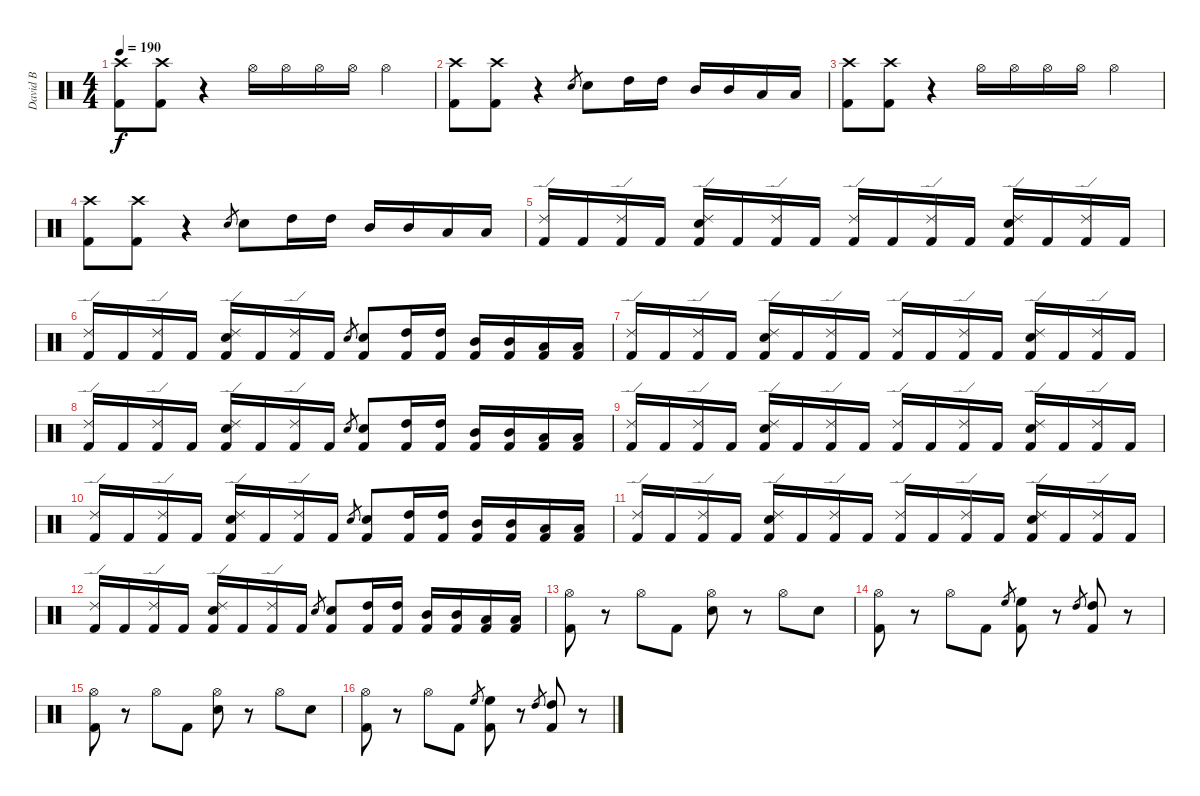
\track ("David B" "David B") {instrument percussion}
\staff {score}
\articulation defaults
\ts (4 4)
\tempo 190
\clef neutral
\ks c
("Crash high (hit)" "Kick (hit) 2").8{dy f} ("Crash high (hit)" "Kick (hit) 2").8 r.4 "Hi-Hat (open)".16 "Hi-Hat (open)".16 "Hi-Hat (open)".16 "Hi-Hat (open)".16 "Hi-Hat (open)".4 |
("Crash high (hit)" "Kick (hit) 2").8 ("Crash high (hit)" "Kick (hit) 2").8 r.4 "Electric Snare (hit)".8{gr} "Electric Snare (hit)".8 "High Tom (hit)".16 "High Tom (hit)".16 "Mid Tom (hit)".16 "Mid Tom (hit)".16 "Low Tom (hit)".16 "Low Tom (hit)".16 |
("Crash high (hit)" "Kick (hit) 2").8 ("Crash high (hit)" "Kick (hit) 2").8 r.4 "Hi-Hat (open)".16 "Hi-Hat (open)".16 "Hi-Hat (open)".16 "Hi-Hat (open)".16 "Hi-Hat (open)".4 |
("Crash high (hit)" "Kick (hit) 2").8 ("Crash high (hit)" "Kick (hit) 2").8 r.4 "Electric Snare (hit)".8{gr} "Electric Snare (hit)".8 "High Tom (hit)".16 "High Tom (hit)".16 "Mid Tom (hit)".16 "Mid Tom (hit)".16 "Low Tom (hit)".16 "Low Tom (hit)".16 |
("Ride (edge) 2" "Kick (hit) 2").16 "Kick (hit) 2".16 ("Ride (edge) 2" "Kick (hit) 2").16 "Kick (hit) 2".16 ("Ride (edge) 2" "Electric Snare (hit)" "Kick (hit) 2").16 "Kick (hit) 2".16 ("Ride (edge) 2" "Kick (hit) 2").16 "Kick (hit) 2".16 ("Ride (edge) 2" "Kick (hit) 2").16 "Kick (hit) 2".16 ("Ride (edge) 2" "Kick (hit) 2").16 "Kick (hit) 2".16 ("Ride (edge) 2" "Electric Snare (hit)" "Kick (hit) 2").16 "Kick (hit) 2".16 ("Ride (edge) 2" "Kick (hit) 2").16 "Kick (hit) 2".16 |
("Ride (edge) 2" "Kick (hit) 2").16 "Kick (hit) 2".16 ("Ride (edge) 2" "Kick (hit) 2").16 "Kick (hit) 2".16 ("Ride (edge) 2" "Electric Snare (hit)" "Kick (hit) 2").16 "Kick (hit) 2".16 ("Ride (edge) 2" "Kick (hit) 2").16 "Kick (hit) 2".16 "Electric Snare (hit)".8{gr} ("Electric Snare (hit)" "Kick (hit) 2").8 ("High Tom (hit)" "Kick (hit) 2").16 ("High Tom (hit)" "Kick (hit) 2").16 ("Mid Tom (hit)" "Kick (hit) 2").16 ("Mid Tom (hit)" "Kick (hit) 2").16 ("Low Tom (hit)" "Kick (hit) 2").16 ("Low Tom (hit)" "Kick (hit) 2").16 |
("Ride (edge) 2" "Kick (hit) 2").16 "Kick (hit) 2".16 ("Ride (edge) 2" "Kick (hit) 2").16 "Kick (hit) 2".16 ("Ride (edge) 2" "Electric Snare (hit)" "Kick (hit) 2").16 "Kick (hit) 2".16 ("Ride (edge) 2" "Kick (hit) 2").16 "Kick (hit) 2".16 ("Ride (edge) 2" "Kick (hit) 2").16 "Kick (hit) 2".16 ("Ride (edge) 2" "Kick (hit) 2").16 "Kick (hit) 2".16 ("Ride (edge) 2" "Electric Snare (hit)" "Kick (hit) 2").16 "Kick (hit) 2".16 ("Ride (edge) 2" "Kick (hit) 2").16 "Kick (hit) 2".16 |
("Ride (edge) 2" "Kick (hit) 2").16 "Kick (hit) 2".16 ("Ride (edge) 2" "Kick (hit) 2").16 "Kick (hit) 2".16 ("Ride (edge) 2" "Electric Snare (hit)" "Kick (hit) 2").16 "Kick (hit) 2".16 ("Ride (edge) 2" "Kick (hit) 2").16 "Kick (hit) 2".16 "Electric Snare (hit)".8{gr} ("Electric Snare (hit)" "Kick (hit) 2").8 ("High Tom (hit)" "Kick (hit) 2").16 ("High Tom (hit)" "Kick (hit) 2").16 ("Mid Tom (hit)" "Kick (hit) 2").16 ("Mid Tom (hit)" "Kick (hit) 2").16 ("Low Tom (hit)" "Kick (hit) 2").16 ("Low Tom (hit)" "Kick (hit) 2").16 |
("Ride (edge) 2" "Kick (hit) 2").16 "Kick (hit) 2".16 ("Ride (edge) 2" "Kick (hit) 2").16 "Kick (hit) 2".16 ("Ride (edge) 2" "Electric Snare (hit)" "Kick (hit) 2").16 "Kick (hit) 2".16 ("Ride (edge) 2" "Kick (hit) 2").16 "Kick (hit) 2".16 ("Ride (edge) 2" "Kick (hit) 2").16 "Kick (hit) 2".16 ("Ride (edge) 2" "Kick (hit) 2").16 "Kick (hit) 2".16 ("Ride (edge) 2" "Electric Snare (hit)" "Kick (hit) 2").16 "Kick (hit) 2".16 ("Ride (edge) 2" "Kick (hit) 2").16 "Kick (hit) 2".16 |
("Ride (edge) 2" "Kick (hit) 2").16 "Kick (hit) 2".16 ("Ride (edge) 2" "Kick (hit) 2").16 "Kick (hit) 2".16 ("Ride (edge) 2" "Electric Snare (hit)" "Kick (hit) 2").16 "Kick (hit) 2".16 ("Ride (edge) 2" "Kick (hit) 2").16 "Kick (hit) 2".16 "Electric Snare (hit)".8{gr} ("Electric Snare (hit)" "Kick (hit) 2").8 ("High Tom (hit)" "Kick (hit) 2").16 ("High Tom (hit)" "Kick (hit) 2").16 ("Mid Tom (hit)" "Kick (hit) 2").16 ("Mid Tom (hit)" "Kick (hit) 2").16 ("Low Tom (hit)" "Kick (hit) 2").16 ("Low Tom (hit)" "Kick (hit) 2").16 |
("Ride (edge) 2" "Kick (hit) 2").16 "Kick (hit) 2".16 ("Ride (edge) 2" "Kick (hit) 2").16 "Kick (hit) 2".16 ("Ride (edge) 2" "Electric Snare (hit)" "Kick (hit) 2").16 "Kick (hit) 2".16 ("Ride (edge) 2" "Kick (hit) 2").16 "Kick (hit) 2".16 ("Ride (edge) 2" "Kick (hit) 2").16 "Kick (hit) 2".16 ("Ride (edge) 2" "Kick (hit) 2").16 "Kick (hit) 2".16 ("Ride (edge) 2" "Electric Snare (hit)" "Kick (hit) 2").16 "Kick (hit) 2".16 ("Ride (edge) 2" "Kick (hit) 2").16 "Kick (hit) 2".16 |
("Ride (edge) 2" "Kick (hit) 2").16 "Kick (hit) 2".16 ("Ride (edge) 2" "Kick (hit) 2").16 "Kick (hit) 2".16 ("Ride (edge) 2" "Electric Snare (hit)" "Kick (hit) 2").16 "Kick (hit) 2".16 ("Ride (edge) 2" "Kick (hit) 2").16 "Kick (hit) 2".16 "Electric Snare (hit)".8{gr} ("Electric Snare (hit)" "Kick (hit) 2").8 ("High Tom (hit)" "Kick (hit) 2").16 ("High Tom (hit)" "Kick (hit) 2").16 ("Mid Tom (hit)" "Kick (hit) 2").16 ("Mid Tom (hit)" "Kick (hit) 2").16 ("Low Tom (hit)" "Kick (hit) 2").16 ("Low Tom (hit)" "Kick (hit) 2").16 |
("Hi-Hat (open)" "Kick (hit) 2").8 r.8 "Hi-Hat (open)".8 "Kick (hit) 2".8 ("Hi-Hat (open)" "Electric Snare (hit)").8 r.8 "Hi-Hat (open)".8 "Electric Snare (hit)".8 |
("Hi-Hat (open)" "Kick (hit) 2").8 r.8 "Hi-Hat (open)".8 "Kick (hit) 2".8 "High Floor Tom (hit)".8{gr} ("High Floor Tom (hit)" "Kick (hit) 2").8 r.8 "High Tom (hit)".8{gr} ("High Tom (hit)" "Kick (hit) 2").8 r.8 |
("Hi-Hat (open)" "Kick (hit) 2").8 r.8 "Hi-Hat (open)".8 "Kick (hit) 2".8 ("Hi-Hat (open)" "Electric Snare (hit)").8 r.8 "Hi-Hat (open)".8 "Electric Snare (hit)".8 |
("Hi-Hat (open)" "Kick (hit) 2").8 r.8 "Hi-Hat (open)".8 "Kick (hit) 2".8 "High Floor Tom (hit)".8{gr} ("High Floor Tom (hit)" "Kick (hit) 2").8 r.8 "High Tom (hit)".8{gr} ("High Tom (hit)" "Kick (hit) 2").8 r.8
